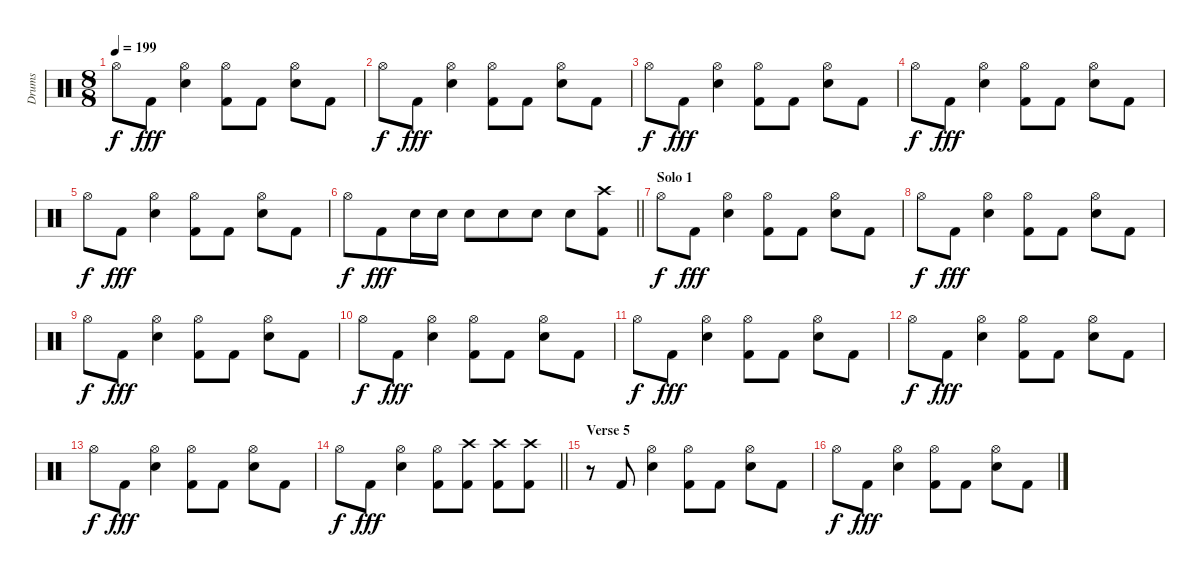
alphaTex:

\track ("Drums" "Drums") {instrument percussion}
\staff {score}
\articulation defaults
\ts (8 8)
\tempo 199
\clef neutral
\ks c "Hi-Hat (open)".8{dy f} "Kick (hit) 2".8{dy fff}
("Hi-Hat (open)" "Snare (hit) 2").4 ("Hi-Hat (open)" "Kick (hit) 2").8 "Kick (hit) 2".8 ("Hi-Hat (open)" "Snare (hit) 2").8 "Kick (hit) 2".8 |
"Hi-Hat (open)".8{dy f} "Kick (hit) 2".8{dy fff} ("Hi-Hat (open)" "Snare (hit) 2").4 ("Hi-Hat (open)" "Kick (hit) 2").8 "Kick (hit) 2".8 ("Hi-Hat (open)" "Snare (hit) 2").8 "Kick (hit) 2".8 |
"Hi-Hat (open)".8{dy f} "Kick (hit) 2".8{dy fff} ("Hi-Hat (open)" "Snare (hit) 2").4 ("Hi-Hat (open)" "Kick (hit) 2").8 "Kick (hit) 2".8 ("Hi-Hat (open)" "Snare (hit) 2").8 "Kick (hit) 2".8 |
"Hi-Hat (open)".8{dy f} "Kick (hit) 2".8{dy fff} ("Hi-Hat (open)" "Snare (hit) 2").4 ("Hi-Hat (open)" "Kick (hit) 2").8 "Kick (hit) 2".8 ("Hi-Hat (open)" "Snare (hit) 2").8 "Kick (hit) 2".8 |
"Hi-Hat (open)".8{dy f} "Kick (hit) 2".8{dy fff} ("Hi-Hat (open)" "Snare (hit) 2").4 ("Hi-Hat (open)" "Kick (hit) 2").8 "Kick (hit) 2".8 ("Hi-Hat (open)" "Snare (hit) 2").8 "Kick (hit) 2".8 |
\barLineRight lightlight "Hi-Hat (open)".8{dy f} "Kick (hit) 2".8{dy fff} "Snare (hit) 2".16 "Snare (hit) 2".16 "Snare (hit) 2".8 "Snare (hit) 2".8 "Snare (hit) 2".8 "Snare (hit) 2".8
("Crash high (hit)" "Kick (hit) 2").8 |
\section ("" "Solo 1")
"Hi-Hat (open)".8{dy f} "Kick (hit) 2".8{dy fff} ("Hi-Hat (open)" "Snare (hit) 2").4 ("Hi-Hat (open)" "Kick (hit) 2").8 "Kick (hit) 2".8 ("Hi-Hat (open)" "Snare (hit) 2").8 "Kick (hit) 2".8 |
"Hi-Hat (open)".8{dy f} "Kick (hit) 2".8{dy fff} ("Hi-Hat (open)" "Snare (hit) 2").4 ("Hi-Hat (open)" "Kick (hit) 2").8 "Kick (hit) 2".8 ("Hi-Hat (open)" "Snare (hit) 2").8 "Kick (hit) 2".8 |
"Hi-Hat (open)".8{dy f} "Kick (hit) 2".8{dy fff} ("Hi-Hat (open)" "Snare (hit) 2").4 ("Hi-Hat (open)" "Kick (hit) 2").8 "Kick (hit) 2".8 ("Hi-Hat (open)" "Snare (hit) 2").8 "Kick (hit) 2".8 |
"Hi-Hat (open)".8{dy f} "Kick (hit) 2".8{dy fff} ("Hi-Hat (open)" "Snare (hit) 2").4 ("Hi-Hat (open)" "Kick (hit) 2").8 "Kick (hit) 2".8 ("Hi-Hat (open)" "Snare (hit) 2").8 "Kick (hit) 2".8 |
"Hi-Hat (open)".8{dy f} "Kick (hit) 2".8{dy fff} ("Hi-Hat (open)" "Snare (hit) 2").4 ("Hi-Hat (open)" "Kick (hit) 2").8 "Kick (hit) 2".8 ("Hi-Hat (open)" "Snare (hit) 2").8 "Kick (hit) 2".8 |
"Hi-Hat (open)".8{dy f} "Kick (hit) 2".8{dy fff} ("Hi-Hat (open)" "Snare (hit) 2").4 ("Hi-Hat (open)" "Kick (hit) 2").8 "Kick (hit) 2".8 ("Hi-Hat (open)" "Snare (hit) 2").8 "Kick (hit) 2".8 |
"Hi-Hat (open)".8{dy f} "Kick (hit) 2".8{dy fff} ("Hi-Hat (open)" "Snare (hit) 2").4 ("Hi-Hat (open)" "Kick (hit) 2").8 "Kick (hit) 2".8 ("Hi-Hat (open)" "Snare (hit) 2").8 "Kick (hit) 2".8 |
\barLineRight lightlight "Hi-Hat (open)".8{dy f} "Kick (hit) 2".8{dy fff}
("Hi-Hat (open)" "Snare (hit) 2").4 ("Hi-Hat (open)" "Kick (hit) 2").8 ("Crash high (hit)" "Kick (hit) 2").8 ("Crash high (hit)" "Kick (hit) 2").8 ("Crash high (hit)" "Kick (hit) 2").8 |
\section ("" "Verse 5")
r.8 "Kick (hit) 2".8 ("Hi-Hat (open)" "Snare (hit) 2").4 ("Hi-Hat (open)" "Kick (hit) 2").8 "Kick (hit) 2".8 ("Hi-Hat (open)" "Snare (hit) 2").8 "Kick (hit) 2".8 |
"Hi-Hat (open)".8{dy f} "Kick (hit) 2".8{dy fff} ("Hi-Hat (open)" "Snare (hit) 2").4 ("Hi-Hat (open)" "Kick (hit) 2").8 "Kick (hit) 2".8 ("Hi-Hat (open)" "Snare (hit) 2").8 "Kick (hit) 2".8
